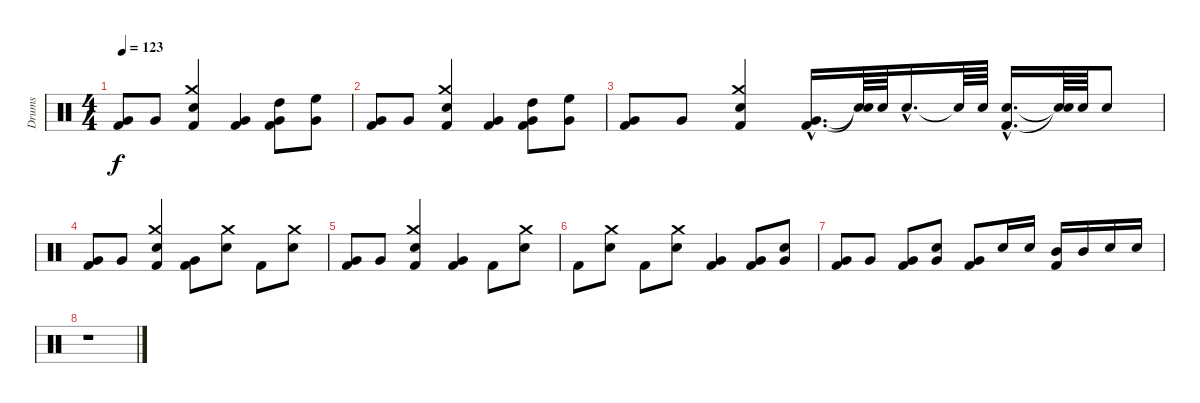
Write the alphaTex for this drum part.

\track ("Drums" "Drums") {instrument percussion}
\staff {score}
\articulation defaults
\ts (4 4)
\tempo 123
\clef neutral
\ks c
("Very Low Tom (hit)" "Kick (hit) 2").8{dy f} "Very Low Tom (hit)".8 ("Crash medium (hit)" "Snare (hit) 2" "Kick (hit) 2").4 ("Very Low Tom (hit)" "Kick (hit) 2").4 ("High Tom (hit)" "Very Low Tom (hit)" "Kick (hit) 2").8 ("High Floor Tom (hit)" "Very Low Tom (hit)").8 |
("Very Low Tom (hit)" "Kick (hit) 2").8 "Very Low Tom (hit)".8 ("Crash medium (hit)" "Snare (hit) 2" "Kick (hit) 2").4 ("Very Low Tom (hit)" "Kick (hit) 2").4 ("High Tom (hit)" "Very Low Tom (hit)" "Kick (hit) 2").8 ("High Floor Tom (hit)" "Very Low Tom (hit)").8 |
("Very Low Tom (hit)" "Kick (hit) 2").8 "Very Low Tom (hit)".8 ("Crash medium (hit)" "Snare (hit) 2" "Kick (hit) 2").4 ("Very Low Tom (hit)"{hac} "Kick (hit) 2"{hac}).16{d} ("Snare (hit)"{t} "Snare (hit)"{t}).64 "Snare (hit) 2".64 "Snare (hit) 2"{hac}.16{d} "Snare (hit)"{t}.64 "Snare (hit) 2".64 ("Snare (hit) 2"{hac} "Kick (hit) 2"{hac}).16{d} ("Snare (hit)"{t} "Snare (hit)"{t}).64 "Snare (hit) 2".64 "Snare (hit) 2".8 |
("Very Low Tom (hit)" "Kick (hit) 2").8 "Very Low Tom (hit)".8 ("Snare (hit) 2" "Crash medium (hit)" "Kick (hit) 2").4 ("Very Low Tom (hit)" "Kick (hit) 2").8 ("Crash medium (hit)" "Snare (hit) 2").8 "Kick (hit) 2".8 ("Crash medium (hit)" "Snare (hit) 2").8 |
("Very Low Tom (hit)" "Kick (hit) 2").8 "Very Low Tom (hit)".8 ("Crash medium (hit)" "Snare (hit) 2" "Kick (hit) 2").4 ("Very Low Tom (hit)" "Kick (hit) 2").4 "Kick (hit) 2".8 ("Crash medium (hit)" "Snare (hit) 2").8 |
"Kick (hit) 2".8 ("Snare (hit) 2" "Crash medium (hit)").8 "Kick (hit) 2".8 ("Snare (hit) 2" "Crash medium (hit)").8 ("Very Low Tom (hit)" "Kick (hit) 2").4 ("Very Low Tom (hit)" "Kick (hit) 2").8 ("Snare (hit) 2" "Very Low Tom (hit)").8 |
("Very Low Tom (hit)" "Kick (hit) 2").8 "Very Low Tom (hit)".8 ("Very Low Tom (hit)" "Kick (hit) 2").8 ("Snare (hit) 2" "Very Low Tom (hit)").8 ("Very Low Tom (hit)" "Kick (hit) 2").8 "Snare (hit) 2".16 "Snare (hit) 2".16 ("Mid Tom (hit)" "Kick (hit) 2").16 "Mid Tom (hit)".16 "Snare (hit) 2".16 "Snare (hit) 2".16 |
r.1
